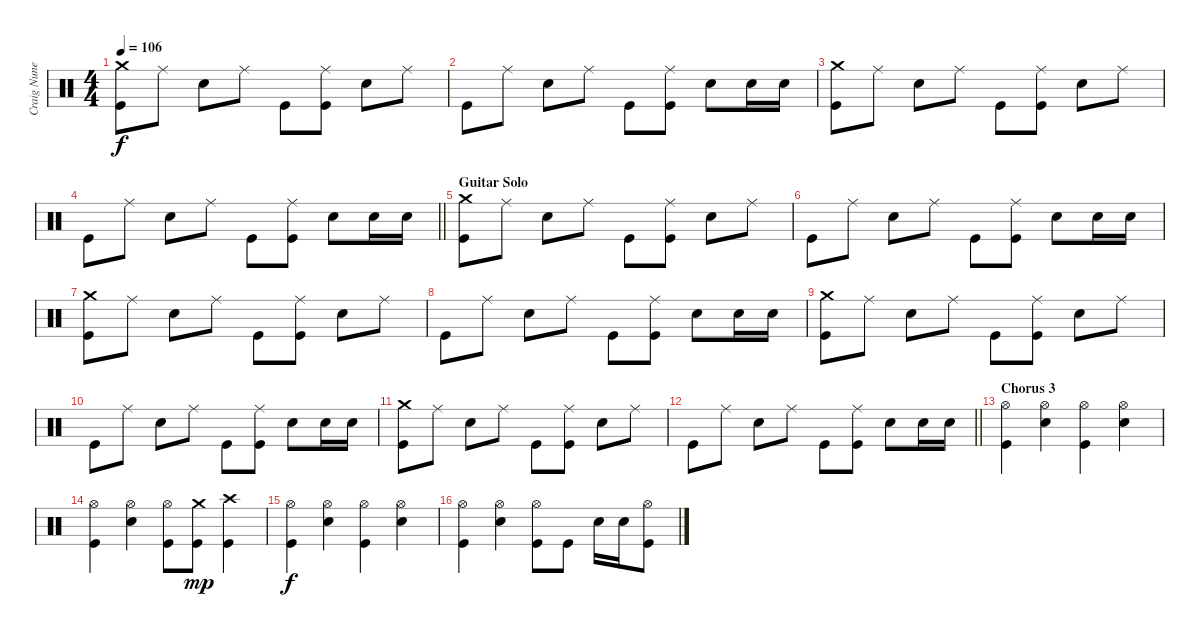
\track ("Craig Nunemacher" "Craig Nune") {instrument percussion}
\staff {score}
\articulation defaults
\ts (4 4)
\tempo 106
\clef neutral
\ks c
("Crash medium (hit)" "Kick (hit)").8{dy f} "Ride (middle)".8 "Snare (hit) 2".8 "Ride (middle)".8 "Kick (hit)".8 ("Ride (middle)" "Kick (hit)").8 "Snare (hit) 2".8 "Ride (middle)".8 |
"Kick (hit)".8 "Ride (middle)".8 "Snare (hit) 2".8 "Ride (middle)".8 "Kick (hit)".8 ("Ride (middle)" "Kick (hit)").8 "Snare (hit) 2".8 "Snare (hit) 2".16 "Snare (hit) 2".16 |
("Crash medium (hit)" "Kick (hit)").8 "Ride (middle)".8 "Snare (hit) 2".8 "Ride (middle)".8 "Kick (hit)".8 ("Ride (middle)" "Kick (hit)").8 "Snare (hit) 2".8 "Ride (middle)".8 |
\barLineRight lightlight "Kick (hit)".8 "Ride (middle)".8 "Snare (hit) 2".8 "Ride (middle)".8 "Kick (hit)".8
("Ride (middle)" "Kick (hit)").8 "Snare (hit) 2".8 "Snare (hit) 2".16 "Snare (hit) 2".16 |
\section ("" "Guitar Solo")
("Crash medium (hit)" "Kick (hit)").8 "Ride (middle)".8 "Snare (hit) 2".8 "Ride (middle)".8 "Kick (hit)".8 ("Ride (middle)" "Kick (hit)").8 "Snare (hit) 2".8 "Ride (middle)".8 |
"Kick (hit)".8 "Ride (middle)".8 "Snare (hit) 2".8 "Ride (middle)".8 "Kick (hit)".8 ("Ride (middle)" "Kick (hit)").8 "Snare (hit) 2".8 "Snare (hit) 2".16 "Snare (hit) 2".16 |
("Crash medium (hit)" "Kick (hit)").8 "Ride (middle)".8 "Snare (hit) 2".8 "Ride (middle)".8 "Kick (hit)".8 ("Ride (middle)" "Kick (hit)").8 "Snare (hit) 2".8 "Ride (middle)".8 |
"Kick (hit)".8 "Ride (middle)".8 "Snare (hit) 2".8 "Ride (middle)".8 "Kick (hit)".8 ("Ride (middle)" "Kick (hit)").8 "Snare (hit) 2".8 "Snare (hit) 2".16 "Snare (hit) 2".16 |
("Crash medium (hit)" "Kick (hit)").8 "Ride (middle)".8 "Snare (hit) 2".8 "Ride (middle)".8 "Kick (hit)".8 ("Ride (middle)" "Kick (hit)").8 "Snare (hit) 2".8 "Ride (middle)".8 |
"Kick (hit)".8 "Ride (middle)".8 "Snare (hit) 2".8 "Ride (middle)".8 "Kick (hit)".8 ("Ride (middle)" "Kick (hit)").8 "Snare (hit) 2".8 "Snare (hit) 2".16 "Snare (hit) 2".16 |
("Crash medium (hit)" "Kick (hit)").8 "Ride (middle)".8 "Snare (hit) 2".8 "Ride (middle)".8 "Kick (hit)".8 ("Ride (middle)" "Kick (hit)").8 "Snare (hit) 2".8 "Ride (middle)".8 |
\barLineRight lightlight "Kick (hit)".8 "Ride (middle)".8 "Snare (hit) 2".8 "Ride (middle)".8 "Kick (hit)".8
("Ride (middle)" "Kick (hit)").8 "Snare (hit) 2".8 "Snare (hit) 2".16 "Snare (hit) 2".16 |
\section ("" "Chorus 3")
("Hi-Hat (open)" "Kick (hit)").4 ("Snare (hit) 2" "Hi-Hat (open)").4 ("Hi-Hat (open)" "Kick (hit)").4 ("Snare (hit) 2" "Hi-Hat (open)").4 |
("Hi-Hat (open)" "Kick (hit)").4 ("Snare (hit) 2" "Hi-Hat (open)").4 ("Hi-Hat (open)" "Kick (hit)").8 ("Crash medium (hit)" "Kick (hit)").8{dy mp} ("Crash high (hit)" "Kick (hit)").4 |
("Hi-Hat (open)" "Kick (hit)").4{dy f} ("Snare (hit) 2" "Hi-Hat (open)").4 ("Hi-Hat (open)" "Kick (hit)").4 ("Snare (hit) 2" "Hi-Hat (open)").4 |
("Hi-Hat (open)" "Kick (hit)").4 ("Snare (hit) 2" "Hi-Hat (open)").4 ("Hi-Hat (open)" "Kick (hit)").8 "Kick (hit)".8 "Snare (hit) 2".16 "Snare (hit) 2".16 ("Hi-Hat (open)" "Kick (hit)").8
